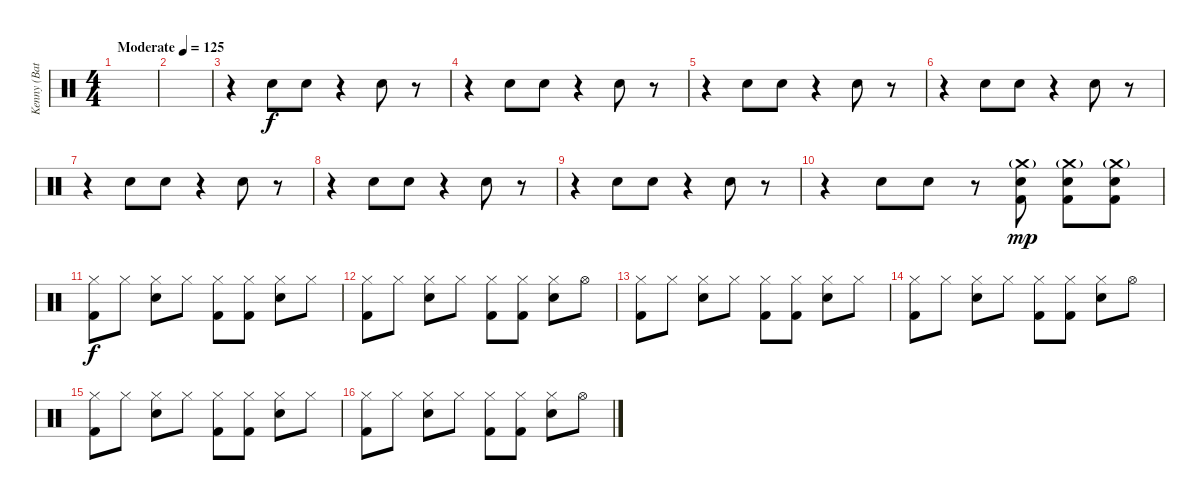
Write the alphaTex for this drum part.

\track ("Kenny (Batterie)" "Kenny (Bat") {instrument percussion}
\staff {score}
\articulation defaults
\ts (4 4)
\tempo (125 "Moderate")
\clef neutral
\ks c
|
|
r.4 "Hand Clap (hit)".8 "Hand Clap (hit)".8 r.4 "Hand Clap (hit)".8 r.8 |
r.4 "Hand Clap (hit)".8 "Hand Clap (hit)".8 r.4 "Hand Clap (hit)".8 r.8 |
r.4 "Hand Clap (hit)".8 "Hand Clap (hit)".8 r.4 "Hand Clap (hit)".8 r.8 |
r.4 "Hand Clap (hit)".8 "Hand Clap (hit)".8 r.4 "Hand Clap (hit)".8 r.8 |
r.4 "Hand Clap (hit)".8 "Hand Clap (hit)".8 r.4 "Hand Clap (hit)".8 r.8 |
r.4 "Hand Clap (hit)".8 "Hand Clap (hit)".8 r.4 "Hand Clap (hit)".8 r.8 |
r.4 "Hand Clap (hit)".8 "Hand Clap (hit)".8 r.4 "Hand Clap (hit)".8 r.8 |
r.4 "Hand Clap (hit)".8 "Hand Clap (hit)".8 r.8 ("Electric Snare (hit)" "Kick (hit) 2" "Crash medium (hit)"{g}).8{dy mp} ("Electric Snare (hit)" "Kick (hit) 2" "Crash medium (hit)"{g}).8 ("Electric Snare (hit)" "Kick (hit) 2" "Crash medium (hit)"{g}).8 |
("Kick (hit) 2" "Hi-Hat (closed)").8{dy f} "Hi-Hat (closed)".8 ("Electric Snare (hit)" "Hi-Hat (closed)").8 "Hi-Hat (closed)".8 ("Kick (hit) 2" "Hi-Hat (closed)").8 ("Kick (hit) 2" "Hi-Hat (closed)").8 ("Electric Snare (hit)" "Hi-Hat (closed)").8 "Hi-Hat (closed)".8 |
("Kick (hit) 2" "Hi-Hat (closed)").8 "Hi-Hat (closed)".8 ("Electric Snare (hit)" "Hi-Hat (closed)").8 "Hi-Hat (closed)".8 ("Kick (hit) 2" "Hi-Hat (closed)").8 ("Kick (hit) 2" "Hi-Hat (closed)").8 ("Electric Snare (hit)" "Hi-Hat (closed)").8 "Hi-Hat (open)".8 |
("Kick (hit) 2" "Hi-Hat (closed)").8 "Hi-Hat (closed)".8 ("Electric Snare (hit)" "Hi-Hat (closed)").8 "Hi-Hat (closed)".8 ("Kick (hit) 2" "Hi-Hat (closed)").8 ("Kick (hit) 2" "Hi-Hat (closed)").8 ("Electric Snare (hit)" "Hi-Hat (closed)").8 "Hi-Hat (closed)".8 |
("Kick (hit) 2" "Hi-Hat (closed)").8 "Hi-Hat (closed)".8 ("Electric Snare (hit)" "Hi-Hat (closed)").8 "Hi-Hat (closed)".8 ("Kick (hit) 2" "Hi-Hat (closed)").8 ("Kick (hit) 2" "Hi-Hat (closed)").8 ("Electric Snare (hit)" "Hi-Hat (closed)").8 "Hi-Hat (open)".8 |
("Kick (hit) 2" "Hi-Hat (closed)").8 "Hi-Hat (closed)".8 ("Electric Snare (hit)" "Hi-Hat (closed)").8 "Hi-Hat (closed)".8 ("Kick (hit) 2" "Hi-Hat (closed)").8 ("Kick (hit) 2" "Hi-Hat (closed)").8 ("Electric Snare (hit)" "Hi-Hat (closed)").8 "Hi-Hat (closed)".8 |
("Kick (hit) 2" "Hi-Hat (closed)").8 "Hi-Hat (closed)".8 ("Electric Snare (hit)" "Hi-Hat (closed)").8 "Hi-Hat (closed)".8 ("Kick (hit) 2" "Hi-Hat (closed)").8 ("Kick (hit) 2" "Hi-Hat (closed)").8 ("Electric Snare (hit)" "Hi-Hat (closed)").8 "Hi-Hat (open)".8
